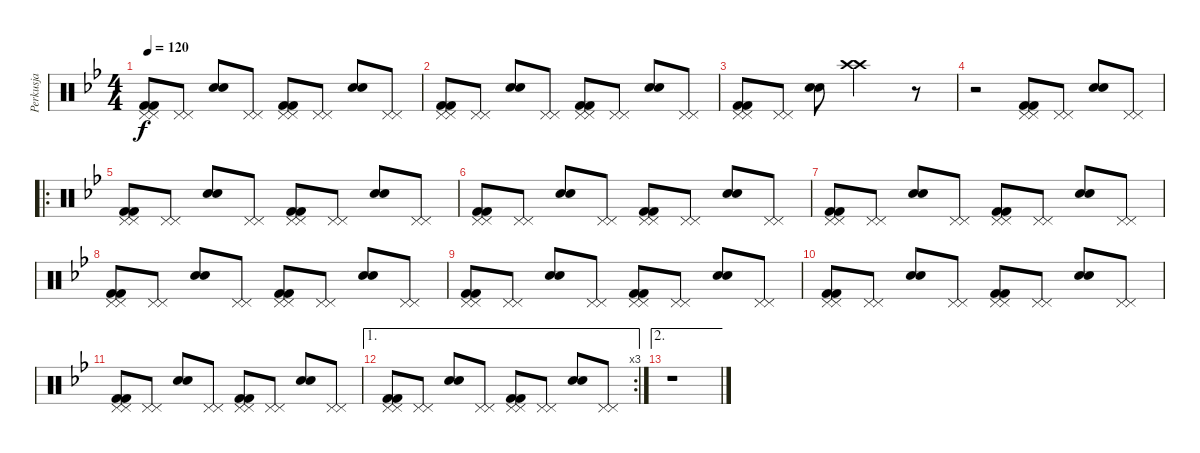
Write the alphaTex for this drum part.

\track ("Perkusja" "Perkusja") {instrument percussion}
\staff {score}
\articulation defaults
\ts (4 4)
\tempo 120
\clef neutral
\ks bb
("Pedal Hi-Hat (hit)" "Pedal Hi-Hat (hit)" "Kick (hit) 2" "Kick (hit) 2").8{dy f} ("Pedal Hi-Hat (hit)" "Pedal Hi-Hat (hit)").8 ("Snare (hit) 2" "Snare (hit) 2").8 ("Pedal Hi-Hat (hit)" "Pedal Hi-Hat (hit)").8 ("Pedal Hi-Hat (hit)" "Pedal Hi-Hat (hit)" "Kick (hit) 2" "Kick (hit) 2").8 ("Pedal Hi-Hat (hit)" "Pedal Hi-Hat (hit)").8 ("Snare (hit) 2" "Snare (hit) 2").8 ("Pedal Hi-Hat (hit)" "Pedal Hi-Hat (hit)").8 |
("Pedal Hi-Hat (hit)" "Pedal Hi-Hat (hit)" "Kick (hit) 2" "Kick (hit) 2").8 ("Pedal Hi-Hat (hit)" "Pedal Hi-Hat (hit)").8 ("Snare (hit) 2" "Snare (hit) 2").8 ("Pedal Hi-Hat (hit)" "Pedal Hi-Hat (hit)").8 ("Pedal Hi-Hat (hit)" "Pedal Hi-Hat (hit)" "Kick (hit) 2" "Kick (hit) 2").8 ("Pedal Hi-Hat (hit)" "Pedal Hi-Hat (hit)").8 ("Snare (hit) 2" "Snare (hit) 2").8 ("Pedal Hi-Hat (hit)" "Pedal Hi-Hat (hit)").8 |
("Pedal Hi-Hat (hit)" "Pedal Hi-Hat (hit)" "Kick (hit) 2" "Kick (hit) 2").8 ("Pedal Hi-Hat (hit)" "Pedal Hi-Hat (hit)").8 ("Snare (hit) 2" "Snare (hit) 2").8 ("Crash high (hit)" "Crash high (hit)").2 r.8 |
r.2 ("Pedal Hi-Hat (hit)" "Pedal Hi-Hat (hit)" "Kick (hit) 2" "Kick (hit) 2").8 ("Pedal Hi-Hat (hit)" "Pedal Hi-Hat (hit)").8 ("Snare (hit) 2" "Snare (hit) 2").8 ("Pedal Hi-Hat (hit)" "Pedal Hi-Hat (hit)").8 |
\ro
("Pedal Hi-Hat (hit)" "Pedal Hi-Hat (hit)" "Kick (hit) 2" "Kick (hit) 2").8 ("Pedal Hi-Hat (hit)" "Pedal Hi-Hat (hit)").8 ("Snare (hit) 2" "Snare (hit) 2").8 ("Pedal Hi-Hat (hit)" "Pedal Hi-Hat (hit)").8 ("Pedal Hi-Hat (hit)" "Pedal Hi-Hat (hit)" "Kick (hit) 2" "Kick (hit) 2").8 ("Pedal Hi-Hat (hit)" "Pedal Hi-Hat (hit)").8 ("Snare (hit) 2" "Snare (hit) 2").8 ("Pedal Hi-Hat (hit)" "Pedal Hi-Hat (hit)").8 |
("Pedal Hi-Hat (hit)" "Pedal Hi-Hat (hit)" "Kick (hit) 2" "Kick (hit) 2").8 ("Pedal Hi-Hat (hit)" "Pedal Hi-Hat (hit)").8 ("Snare (hit) 2" "Snare (hit) 2").8 ("Pedal Hi-Hat (hit)" "Pedal Hi-Hat (hit)").8 ("Pedal Hi-Hat (hit)" "Pedal Hi-Hat (hit)" "Kick (hit) 2" "Kick (hit) 2").8 ("Pedal Hi-Hat (hit)" "Pedal Hi-Hat (hit)").8 ("Snare (hit) 2" "Snare (hit) 2").8 ("Pedal Hi-Hat (hit)" "Pedal Hi-Hat (hit)").8 |
("Pedal Hi-Hat (hit)" "Pedal Hi-Hat (hit)" "Kick (hit) 2" "Kick (hit) 2").8 ("Pedal Hi-Hat (hit)" "Pedal Hi-Hat (hit)").8 ("Snare (hit) 2" "Snare (hit) 2").8 ("Pedal Hi-Hat (hit)" "Pedal Hi-Hat (hit)").8 ("Pedal Hi-Hat (hit)" "Pedal Hi-Hat (hit)" "Kick (hit) 2" "Kick (hit) 2").8 ("Pedal Hi-Hat (hit)" "Pedal Hi-Hat (hit)").8 ("Snare (hit) 2" "Snare (hit) 2").8 ("Pedal Hi-Hat (hit)" "Pedal Hi-Hat (hit)").8 |
("Pedal Hi-Hat (hit)" "Pedal Hi-Hat (hit)" "Kick (hit) 2" "Kick (hit) 2").8 ("Pedal Hi-Hat (hit)" "Pedal Hi-Hat (hit)").8 ("Snare (hit) 2" "Snare (hit) 2").8 ("Pedal Hi-Hat (hit)" "Pedal Hi-Hat (hit)").8 ("Pedal Hi-Hat (hit)" "Pedal Hi-Hat (hit)" "Kick (hit) 2" "Kick (hit) 2").8 ("Pedal Hi-Hat (hit)" "Pedal Hi-Hat (hit)").8 ("Snare (hit) 2" "Snare (hit) 2").8 ("Pedal Hi-Hat (hit)" "Pedal Hi-Hat (hit)").8 |
("Pedal Hi-Hat (hit)" "Pedal Hi-Hat (hit)" "Kick (hit) 2" "Kick (hit) 2").8 ("Pedal Hi-Hat (hit)" "Pedal Hi-Hat (hit)").8 ("Snare (hit) 2" "Snare (hit) 2").8 ("Pedal Hi-Hat (hit)" "Pedal Hi-Hat (hit)").8 ("Pedal Hi-Hat (hit)" "Pedal Hi-Hat (hit)" "Kick (hit) 2" "Kick (hit) 2").8 ("Pedal Hi-Hat (hit)" "Pedal Hi-Hat (hit)").8 ("Snare (hit) 2" "Snare (hit) 2").8 ("Pedal Hi-Hat (hit)" "Pedal Hi-Hat (hit)").8 |
("Pedal Hi-Hat (hit)" "Pedal Hi-Hat (hit)" "Kick (hit) 2" "Kick (hit) 2").8 ("Pedal Hi-Hat (hit)" "Pedal Hi-Hat (hit)").8 ("Snare (hit) 2" "Snare (hit) 2").8 ("Pedal Hi-Hat (hit)" "Pedal Hi-Hat (hit)").8 ("Pedal Hi-Hat (hit)" "Pedal Hi-Hat (hit)" "Kick (hit) 2" "Kick (hit) 2").8 ("Pedal Hi-Hat (hit)" "Pedal Hi-Hat (hit)").8 ("Snare (hit) 2" "Snare (hit) 2").8 ("Pedal Hi-Hat (hit)" "Pedal Hi-Hat (hit)").8 |
("Pedal Hi-Hat (hit)" "Pedal Hi-Hat (hit)" "Kick (hit) 2" "Kick (hit) 2").8 ("Pedal Hi-Hat (hit)" "Pedal Hi-Hat (hit)").8 ("Snare (hit) 2" "Snare (hit) 2").8 ("Pedal Hi-Hat (hit)" "Pedal Hi-Hat (hit)").8 ("Pedal Hi-Hat (hit)" "Pedal Hi-Hat (hit)" "Kick (hit) 2" "Kick (hit) 2").8 ("Pedal Hi-Hat (hit)" "Pedal Hi-Hat (hit)").8 ("Snare (hit) 2" "Snare (hit) 2").8 ("Pedal Hi-Hat (hit)" "Pedal Hi-Hat (hit)").8 |
\ae 1
\rc 3
("Pedal Hi-Hat (hit)" "Pedal Hi-Hat (hit)" "Kick (hit) 2" "Kick (hit) 2").8 ("Pedal Hi-Hat (hit)" "Pedal Hi-Hat (hit)").8 ("Snare (hit) 2" "Snare (hit) 2").8 ("Pedal Hi-Hat (hit)" "Pedal Hi-Hat (hit)").8 ("Pedal Hi-Hat (hit)" "Pedal Hi-Hat (hit)" "Kick (hit) 2" "Kick (hit) 2").8 ("Pedal Hi-Hat (hit)" "Pedal Hi-Hat (hit)").8 ("Snare (hit) 2" "Snare (hit) 2").8 ("Pedal Hi-Hat (hit)" "Pedal Hi-Hat (hit)").8 |
\ae 2
r.1
